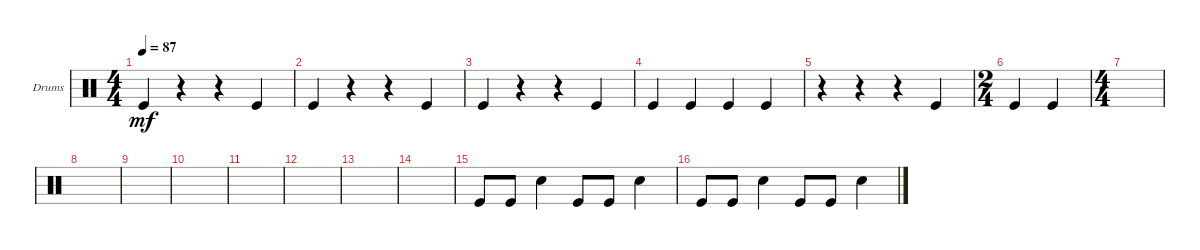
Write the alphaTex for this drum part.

\defaultSystemsLayout 4
\bracketExtendMode groupsimilarinstruments
\firstSystemTrackNameOrientation horizontal
\otherSystemsTrackNameOrientation horizontal
\track ("Body percussion (see notes)" "Drums") {instrument percussion}
\staff {score}
\articulation defaults
\ts (4 4)
\tempo 87
\clef neutral
\ks c "Kick (hit)".4{dy mf}
r.4 r.4 "Kick (hit)".4 |
"Kick (hit)".4 r.4 r.4 "Kick (hit)".4 |
"Kick (hit)".4 r.4 r.4 "Kick (hit)".4 |
"Kick (hit)".4 "Kick (hit)".4 "Kick (hit)".4 "Kick (hit)".4 |
r.4 r.4 r.4 "Kick (hit)".4 |
\ts (2 4)
"Kick (hit)".4 "Kick (hit)".4 |
\ts (4 4)
|
|
|
|
|
|
|
|
"Kick (hit)".8 "Kick (hit)".8 "Snare (hit) 2".4 "Kick (hit)".8 "Kick (hit)".8 "Snare (hit) 2".4 |
"Kick (hit)".8 "Kick (hit)".8 "Snare (hit) 2".4 "Kick (hit)".8 "Kick (hit)".8 "Snare (hit) 2".4
